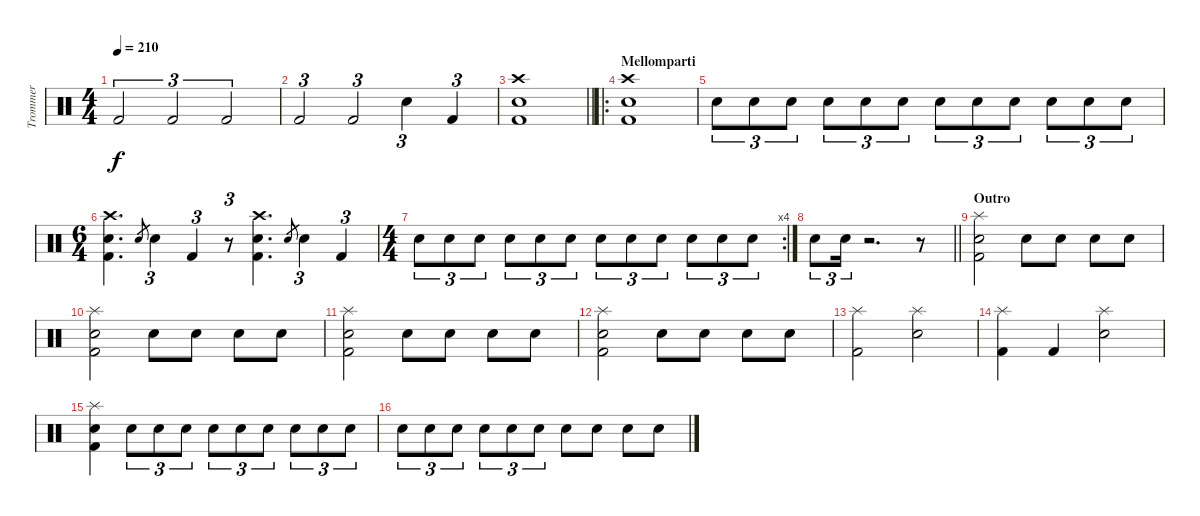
\track ("Trommer" "Trommer") {instrument percussion}
\staff {score}
\articulation defaults
\ts (4 4)
\tempo 210
\clef neutral
\ks c "Kick (hit) 2".2{tu (3 2) dy f} "Kick (hit) 2".2{tu (3 2)} "Kick (hit) 2".2{tu (3 2)}
|
"Kick (hit) 2".2{tu (3 2)} "Kick (hit) 2".2{tu (3 2)} "Snare (hit) 2".4{tu (3 2)} "Kick (hit) 2".4{tu (3 2)} |
\barLineRight lightlight
("Crash high (hit)" "Snare (hit) 2" "Kick (hit) 2").1 |
\ro
\section ("" "Mellomparti")
("Crash high (hit)" "Snare (hit) 2" "Kick (hit) 2").1 |
"Snare (hit) 2".8{tu (3 2)} "Snare (hit) 2".8{tu (3 2)} "Snare (hit) 2".8{tu (3 2)} "Snare (hit) 2".8{tu (3 2)} "Snare (hit) 2".8{tu (3 2)} "Snare (hit) 2".8{tu (3 2)} "Snare (hit) 2".8{tu (3 2)} "Snare (hit) 2".8{tu (3 2)} "Snare (hit) 2".8{tu (3 2)} "Snare (hit) 2".8{tu (3 2)} "Snare (hit) 2".8{tu (3 2)} "Snare (hit) 2".8{tu (3 2)} |
\ts (6 4)
("Crash high (hit)" "Snare (hit) 2" "Kick (hit) 2").4{d} "Snare (hit) 2".8{gr} "Snare (hit) 2".4{tu (3 2)} "Kick (hit) 2".4{tu (3 2)} r.8{tu (3 2)} ("Crash high (hit)" "Snare (hit) 2" "Kick (hit) 2").4{d} "Snare (hit) 2".8{gr} "Snare (hit) 2".4{tu (3 2)} "Kick (hit) 2".4{tu (3 2)} |
\rc 4
\ts (4 4)
"Snare (hit) 2".8{tu (3 2)} "Snare (hit) 2".8{tu (3 2)} "Snare (hit) 2".8{tu (3 2)} "Snare (hit) 2".8{tu (3 2)} "Snare (hit) 2".8{tu (3 2)} "Snare (hit) 2".8{tu (3 2)} "Snare (hit) 2".8{tu (3 2)} "Snare (hit) 2".8{tu (3 2)} "Snare (hit) 2".8{tu (3 2)} "Snare (hit) 2".8{tu (3 2)} "Snare (hit) 2".8{tu (3 2)} "Snare (hit) 2".8{tu (3 2)} |
\barLineRight lightlight "Snare (hit) 2".8{tu (3 2)} "Snare (hit) 2".16{tu (3 2)}
r.2{d} r.8 |
\section ("" "Outro")
("Splash (hit)" "Snare (hit) 2" "Kick (hit) 2").2 "Snare (hit) 2".8 "Snare (hit) 2".8 "Snare (hit) 2".8 "Snare (hit) 2".8 |
("Splash (hit)" "Snare (hit) 2" "Kick (hit) 2").2 "Snare (hit) 2".8 "Snare (hit) 2".8 "Snare (hit) 2".8 "Snare (hit) 2".8 |
("Splash (hit)" "Snare (hit) 2" "Kick (hit) 2").2 "Snare (hit) 2".8 "Snare (hit) 2".8 "Snare (hit) 2".8 "Snare (hit) 2".8 |
("Splash (hit)" "Snare (hit) 2" "Kick (hit) 2").2 "Snare (hit) 2".8 "Snare (hit) 2".8 "Snare (hit) 2".8 "Snare (hit) 2".8 |
("Splash (hit)" "Kick (hit) 2").2 ("Splash (hit)" "Snare (hit) 2").2 |
("Splash (hit)" "Kick (hit) 2").4 "Kick (hit) 2".4 ("Splash (hit)" "Snare (hit) 2").2 |
("Splash (hit)" "Snare (hit) 2" "Kick (hit) 2").4 "Snare (hit) 2".8{tu (3 2)} "Snare (hit) 2".8{tu (3 2)} "Snare (hit) 2".8{tu (3 2)} "Snare (hit) 2".8{tu (3 2)} "Snare (hit) 2".8{tu (3 2)} "Snare (hit) 2".8{tu (3 2)} "Snare (hit) 2".8{tu (3 2)} "Snare (hit) 2".8{tu (3 2)} "Snare (hit) 2".8{tu (3 2)} |
"Snare (hit) 2".8{tu (3 2)} "Snare (hit) 2".8{tu (3 2)} "Snare (hit) 2".8{tu (3 2)} "Snare (hit) 2".8{tu (3 2)} "Snare (hit) 2".8{tu (3 2)} "Snare (hit) 2".8{tu (3 2)} "Snare (hit) 2".8 "Snare (hit) 2".8 "Snare (hit) 2".8 "Snare (hit) 2".8
